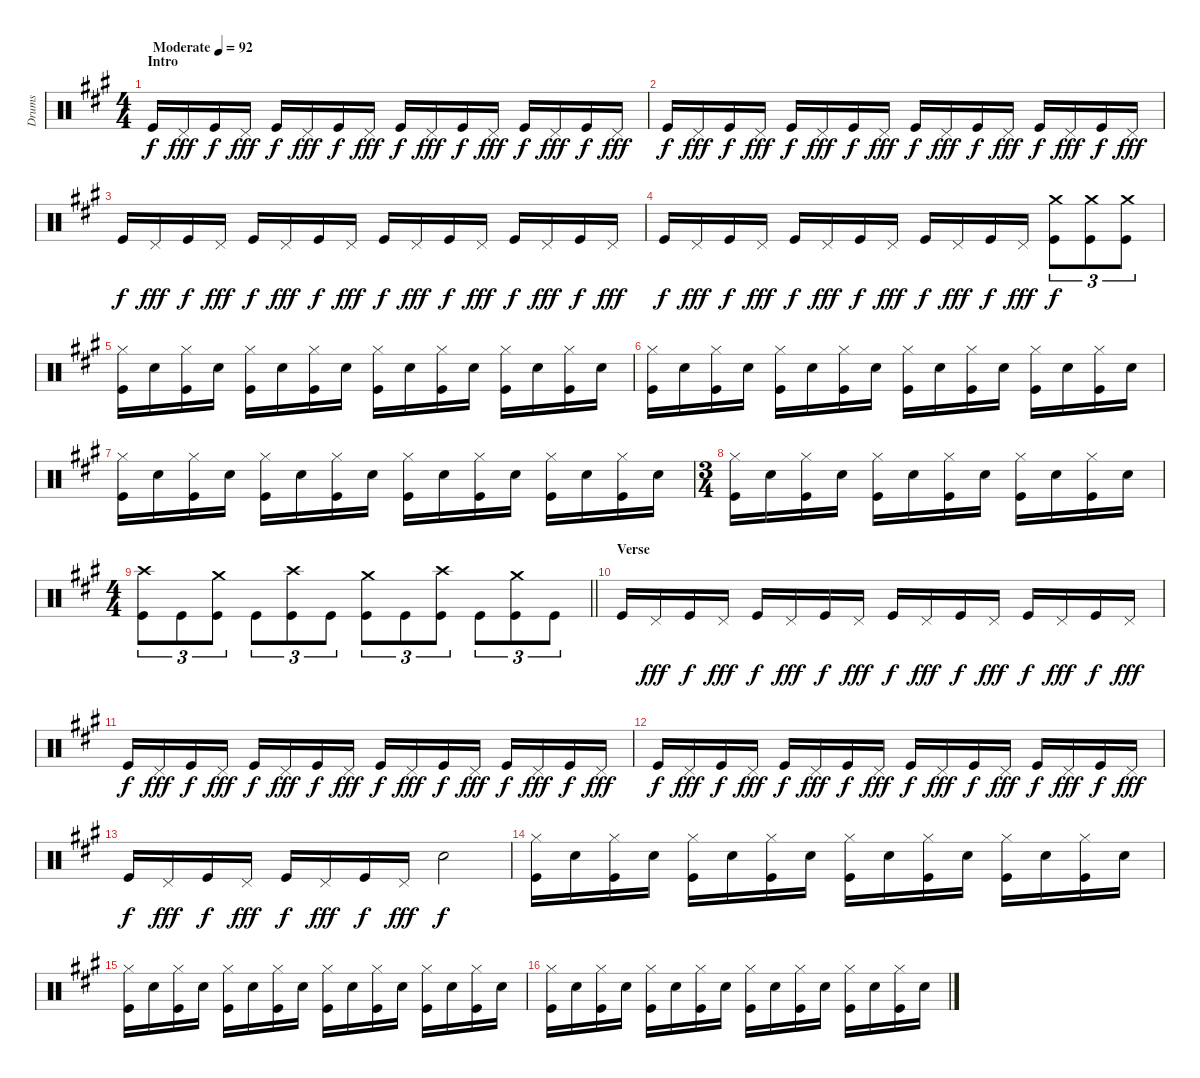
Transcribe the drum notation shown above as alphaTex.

\track ("Drums" "Drums") {instrument percussion}
\staff {score}
\articulation defaults
\ts (4 4)
\section ("" "Intro")
\tempo (92 "Moderate")
\clef neutral
\ks f#minor "Kick (hit)".16{dy f} "Pedal Hi-Hat (hit)".16{dy fff} "Kick (hit)".16{dy f} "Pedal Hi-Hat (hit)".16{dy fff} "Kick (hit)".16{dy f} "Pedal Hi-Hat (hit)".16{dy fff} "Kick (hit)".16{dy f} "Pedal Hi-Hat (hit)".16{dy fff} "Kick (hit)".16{dy f} "Pedal Hi-Hat (hit)".16{dy fff} "Kick (hit)".16{dy f} "Pedal Hi-Hat (hit)".16{dy fff} "Kick (hit)".16{dy f} "Pedal Hi-Hat (hit)".16{dy fff} "Kick (hit)".16{dy f} "Pedal Hi-Hat (hit)".16{dy fff}
|
"Kick (hit)".16{dy f} "Pedal Hi-Hat (hit)".16{dy fff} "Kick (hit)".16{dy f} "Pedal Hi-Hat (hit)".16{dy fff} "Kick (hit)".16{dy f} "Pedal Hi-Hat (hit)".16{dy fff} "Kick (hit)".16{dy f} "Pedal Hi-Hat (hit)".16{dy fff} "Kick (hit)".16{dy f} "Pedal Hi-Hat (hit)".16{dy fff} "Kick (hit)".16{dy f} "Pedal Hi-Hat (hit)".16{dy fff} "Kick (hit)".16{dy f} "Pedal Hi-Hat (hit)".16{dy fff} "Kick (hit)".16{dy f} "Pedal Hi-Hat (hit)".16{dy fff} |
"Kick (hit)".16{dy f} "Pedal Hi-Hat (hit)".16{dy fff} "Kick (hit)".16{dy f} "Pedal Hi-Hat (hit)".16{dy fff} "Kick (hit)".16{dy f} "Pedal Hi-Hat (hit)".16{dy fff} "Kick (hit)".16{dy f} "Pedal Hi-Hat (hit)".16{dy fff} "Kick (hit)".16{dy f} "Pedal Hi-Hat (hit)".16{dy fff} "Kick (hit)".16{dy f} "Pedal Hi-Hat (hit)".16{dy fff} "Kick (hit)".16{dy f} "Pedal Hi-Hat (hit)".16{dy fff} "Kick (hit)".16{dy f} "Pedal Hi-Hat (hit)".16{dy fff} |
"Kick (hit)".16{dy f} "Pedal Hi-Hat (hit)".16{dy fff} "Kick (hit)".16{dy f} "Pedal Hi-Hat (hit)".16{dy fff} "Kick (hit)".16{dy f} "Pedal Hi-Hat (hit)".16{dy fff} "Kick (hit)".16{dy f} "Pedal Hi-Hat (hit)".16{dy fff} "Kick (hit)".16{dy f} "Pedal Hi-Hat (hit)".16{dy fff} "Kick (hit)".16{dy f} "Pedal Hi-Hat (hit)".16{dy fff} ("Crash medium (hit)" "Kick (hit)").8{tu (3 2) dy f} ("Crash medium (hit)" "Kick (hit)").8{tu (3 2)} ("Crash medium (hit)" "Kick (hit)").8{tu (3 2)} |
("Hi-Hat (closed)" "Kick (hit)").16 "Snare (hit) 2".16 ("Hi-Hat (closed)" "Kick (hit)").16 "Snare (hit) 2".16 ("Hi-Hat (closed)" "Kick (hit)").16 "Snare (hit) 2".16 ("Hi-Hat (closed)" "Kick (hit)").16 "Snare (hit) 2".16 ("Hi-Hat (closed)" "Kick (hit)").16 "Snare (hit) 2".16 ("Hi-Hat (closed)" "Kick (hit)").16 "Snare (hit) 2".16 ("Hi-Hat (closed)" "Kick (hit)").16 "Snare (hit) 2".16 ("Hi-Hat (closed)" "Kick (hit)").16 "Snare (hit) 2".16 |
("Hi-Hat (closed)" "Kick (hit)").16 "Snare (hit) 2".16 ("Hi-Hat (closed)" "Kick (hit)").16 "Snare (hit) 2".16 ("Hi-Hat (closed)" "Kick (hit)").16 "Snare (hit) 2".16 ("Hi-Hat (closed)" "Kick (hit)").16 "Snare (hit) 2".16 ("Hi-Hat (closed)" "Kick (hit)").16 "Snare (hit) 2".16 ("Hi-Hat (closed)" "Kick (hit)").16 "Snare (hit) 2".16 ("Hi-Hat (closed)" "Kick (hit)").16 "Snare (hit) 2".16 ("Hi-Hat (closed)" "Kick (hit)").16 "Snare (hit) 2".16 |
("Hi-Hat (closed)" "Kick (hit)").16 "Snare (hit) 2".16 ("Hi-Hat (closed)" "Kick (hit)").16 "Snare (hit) 2".16 ("Hi-Hat (closed)" "Kick (hit)").16 "Snare (hit) 2".16 ("Hi-Hat (closed)" "Kick (hit)").16 "Snare (hit) 2".16 ("Hi-Hat (closed)" "Kick (hit)").16 "Snare (hit) 2".16 ("Hi-Hat (closed)" "Kick (hit)").16 "Snare (hit) 2".16 ("Hi-Hat (closed)" "Kick (hit)").16 "Snare (hit) 2".16 ("Hi-Hat (closed)" "Kick (hit)").16 "Snare (hit) 2".16 |
\ts (3 4)
("Hi-Hat (closed)" "Kick (hit)").16 "Snare (hit) 2".16 ("Hi-Hat (closed)" "Kick (hit)").16 "Snare (hit) 2".16 ("Hi-Hat (closed)" "Kick (hit)").16 "Snare (hit) 2".16 ("Hi-Hat (closed)" "Kick (hit)").16 "Snare (hit) 2".16 ("Hi-Hat (closed)" "Kick (hit)").16 "Snare (hit) 2".16 ("Hi-Hat (closed)" "Kick (hit)").16 "Snare (hit) 2".16 |
\ts (4 4)
\barLineRight lightlight
("Crash high (hit)" "Kick (hit)").8{tu (3 2)} "Kick (hit)".8{tu (3 2)} ("Crash medium (hit)" "Kick (hit)").8{tu (3 2)} "Kick (hit)".8{tu (3 2)} ("Crash high (hit)" "Kick (hit)").8{tu (3 2)} "Kick (hit)".8{tu (3 2)} ("Crash medium (hit)" "Kick (hit)").8{tu (3 2)} "Kick (hit)".8{tu (3 2)} ("Crash high (hit)" "Kick (hit)").8{tu (3 2)} "Kick (hit)".8{tu (3 2)} ("Crash medium (hit)" "Kick (hit)").8{tu (3 2)} "Kick (hit)".8{tu (3 2)} |
\section ("" "Verse")
"Kick (hit)".16 "Pedal Hi-Hat (hit)".16{dy fff} "Kick (hit)".16{dy f} "Pedal Hi-Hat (hit)".16{dy fff} "Kick (hit)".16{dy f} "Pedal Hi-Hat (hit)".16{dy fff} "Kick (hit)".16{dy f} "Pedal Hi-Hat (hit)".16{dy fff} "Kick (hit)".16{dy f} "Pedal Hi-Hat (hit)".16{dy fff} "Kick (hit)".16{dy f} "Pedal Hi-Hat (hit)".16{dy fff} "Kick (hit)".16{dy f} "Pedal Hi-Hat (hit)".16{dy fff} "Kick (hit)".16{dy f} "Pedal Hi-Hat (hit)".16{dy fff} |
"Kick (hit)".16{dy f} "Pedal Hi-Hat (hit)".16{dy fff} "Kick (hit)".16{dy f} "Pedal Hi-Hat (hit)".16{dy fff} "Kick (hit)".16{dy f} "Pedal Hi-Hat (hit)".16{dy fff} "Kick (hit)".16{dy f} "Pedal Hi-Hat (hit)".16{dy fff} "Kick (hit)".16{dy f} "Pedal Hi-Hat (hit)".16{dy fff} "Kick (hit)".16{dy f} "Pedal Hi-Hat (hit)".16{dy fff} "Kick (hit)".16{dy f} "Pedal Hi-Hat (hit)".16{dy fff} "Kick (hit)".16{dy f} "Pedal Hi-Hat (hit)".16{dy fff} |
"Kick (hit)".16{dy f} "Pedal Hi-Hat (hit)".16{dy fff} "Kick (hit)".16{dy f} "Pedal Hi-Hat (hit)".16{dy fff} "Kick (hit)".16{dy f} "Pedal Hi-Hat (hit)".16{dy fff} "Kick (hit)".16{dy f} "Pedal Hi-Hat (hit)".16{dy fff} "Kick (hit)".16{dy f} "Pedal Hi-Hat (hit)".16{dy fff} "Kick (hit)".16{dy f} "Pedal Hi-Hat (hit)".16{dy fff} "Kick (hit)".16{dy f} "Pedal Hi-Hat (hit)".16{dy fff} "Kick (hit)".16{dy f} "Pedal Hi-Hat (hit)".16{dy fff} |
"Kick (hit)".16{dy f} "Pedal Hi-Hat (hit)".16{dy fff} "Kick (hit)".16{dy f} "Pedal Hi-Hat (hit)".16{dy fff} "Kick (hit)".16{dy f} "Pedal Hi-Hat (hit)".16{dy fff} "Kick (hit)".16{dy f} "Pedal Hi-Hat (hit)".16{dy fff} "Snare (hit) 2".2{dy f} |
("Hi-Hat (closed)" "Kick (hit)").16 "Snare (hit) 2".16 ("Hi-Hat (closed)" "Kick (hit)").16 "Snare (hit) 2".16 ("Hi-Hat (closed)" "Kick (hit)").16 "Snare (hit) 2".16 ("Hi-Hat (closed)" "Kick (hit)").16 "Snare (hit) 2".16 ("Hi-Hat (closed)" "Kick (hit)").16 "Snare (hit) 2".16 ("Hi-Hat (closed)" "Kick (hit)").16 "Snare (hit) 2".16 ("Hi-Hat (closed)" "Kick (hit)").16 "Snare (hit) 2".16 ("Hi-Hat (closed)" "Kick (hit)").16 "Snare (hit) 2".16 |
("Hi-Hat (closed)" "Kick (hit)").16 "Snare (hit) 2".16 ("Hi-Hat (closed)" "Kick (hit)").16 "Snare (hit) 2".16 ("Hi-Hat (closed)" "Kick (hit)").16 "Snare (hit) 2".16 ("Hi-Hat (closed)" "Kick (hit)").16 "Snare (hit) 2".16 ("Hi-Hat (closed)" "Kick (hit)").16 "Snare (hit) 2".16 ("Hi-Hat (closed)" "Kick (hit)").16 "Snare (hit) 2".16 ("Hi-Hat (closed)" "Kick (hit)").16 "Snare (hit) 2".16 ("Hi-Hat (closed)" "Kick (hit)").16 "Snare (hit) 2".16 |
("Hi-Hat (closed)" "Kick (hit)").16 "Snare (hit) 2".16 ("Hi-Hat (closed)" "Kick (hit)").16 "Snare (hit) 2".16 ("Hi-Hat (closed)" "Kick (hit)").16 "Snare (hit) 2".16 ("Hi-Hat (closed)" "Kick (hit)").16 "Snare (hit) 2".16 ("Hi-Hat (closed)" "Kick (hit)").16 "Snare (hit) 2".16 ("Hi-Hat (closed)" "Kick (hit)").16 "Snare (hit) 2".16 ("Hi-Hat (closed)" "Kick (hit)").16 "Snare (hit) 2".16 ("Hi-Hat (closed)" "Kick (hit)").16 "Snare (hit) 2".16
